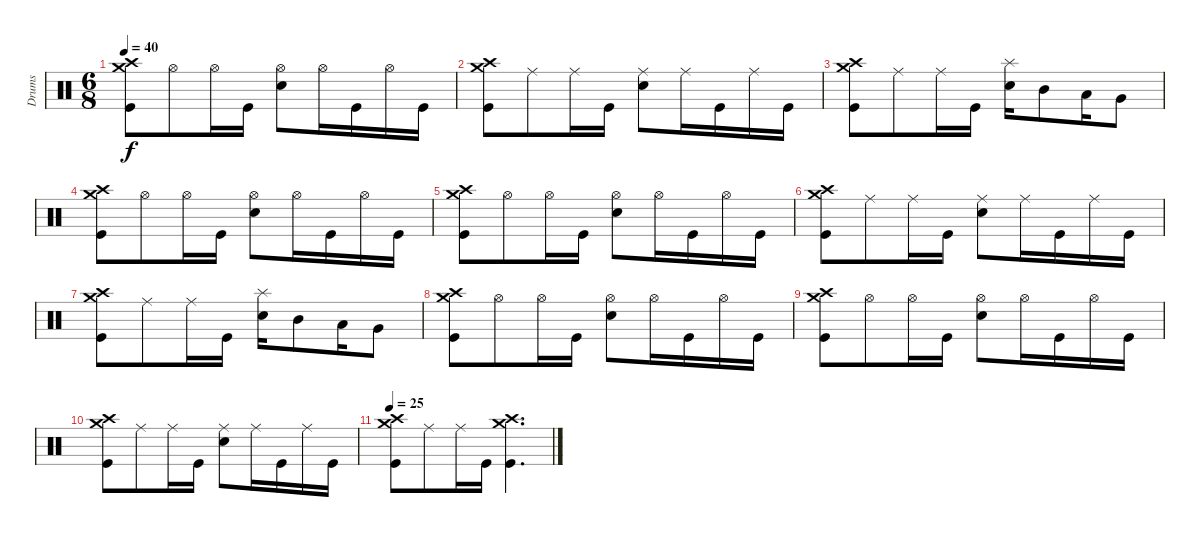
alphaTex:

\track ("Drums" "Drums") {instrument percussion}
\staff {score}
\articulation defaults
\ts (6 8)
\tempo 40
\clef neutral
\ks c
("Kick (hit)" "Crash medium (hit)" "Crash high (hit)").8{dy f} "Hi-Hat (open)".8 "Hi-Hat (open)".16 "Kick (hit)".16 ("Hi-Hat (open)" "Snare (hit) 2").8 "Hi-Hat (open)".16 "Kick (hit)".16 "Hi-Hat (open)".16 "Kick (hit)".16 |
("Kick (hit)" "Crash medium (hit)" "Crash high (hit)").8 "Ride (middle)".8 "Ride (middle)".16 "Kick (hit)".16 ("Ride (middle)" "Snare (hit) 2").8 "Ride (middle)".16 "Kick (hit)".16 "Ride (middle)".16 "Kick (hit)".16 |
("Kick (hit)" "Crash medium (hit)" "Crash high (hit)").8 "Ride (middle)".8 "Ride (middle)".16 "Kick (hit)".16 ("Snare (hit) 2" "Splash (hit)").16 "Mid Tom (hit)".8 "Low Tom (hit)".16 "Very Low Tom (hit)".8 |
("Kick (hit)" "Crash medium (hit)" "Crash high (hit)").8 "Hi-Hat (open)".8 "Hi-Hat (open)".16 "Kick (hit)".16 ("Hi-Hat (open)" "Snare (hit) 2").8 "Hi-Hat (open)".16 "Kick (hit)".16 "Hi-Hat (open)".16 "Kick (hit)".16 |
("Kick (hit)" "Crash medium (hit)" "Crash high (hit)").8 "Hi-Hat (open)".8 "Hi-Hat (open)".16 "Kick (hit)".16 ("Hi-Hat (open)" "Snare (hit) 2").8 "Hi-Hat (open)".16 "Kick (hit)".16 "Hi-Hat (open)".16 "Kick (hit)".16 |
("Kick (hit)" "Crash medium (hit)" "Crash high (hit)").8 "Ride (middle)".8 "Ride (middle)".16 "Kick (hit)".16 ("Ride (middle)" "Snare (hit) 2").8 "Ride (middle)".16 "Kick (hit)".16 "Ride (middle)".16 "Kick (hit)".16 |
("Kick (hit)" "Crash medium (hit)" "Crash high (hit)").8 "Ride (middle)".8 "Ride (middle)".16 "Kick (hit)".16 ("Snare (hit) 2" "Splash (hit)").16 "Mid Tom (hit)".8 "Low Tom (hit)".16 "Very Low Tom (hit)".8 |
("Kick (hit)" "Crash medium (hit)" "Crash high (hit)").8 "Hi-Hat (open)".8 "Hi-Hat (open)".16 "Kick (hit)".16 ("Hi-Hat (open)" "Snare (hit) 2").8 "Hi-Hat (open)".16 "Kick (hit)".16 "Hi-Hat (open)".16 "Kick (hit)".16 |
("Kick (hit)" "Crash medium (hit)" "Crash high (hit)").8 "Hi-Hat (open)".8 "Hi-Hat (open)".16 "Kick (hit)".16 ("Hi-Hat (open)" "Snare (hit) 2").8 "Hi-Hat (open)".16 "Kick (hit)".16 "Hi-Hat (open)".16 "Kick (hit)".16 |
("Kick (hit)" "Crash medium (hit)" "Crash high (hit)").8 "Ride (middle)".8 "Ride (middle)".16 "Kick (hit)".16 ("Ride (middle)" "Snare (hit) 2").8 "Ride (middle)".16 "Kick (hit)".16 "Ride (middle)".16 "Kick (hit)".16 |
\tempo 25
("Kick (hit)" "Crash medium (hit)" "Crash high (hit)").8 "Ride (middle)".8 "Ride (middle)".16 "Kick (hit)".16 ("Kick (hit)" "Crash medium (hit)" "Crash high (hit)").4{d}
